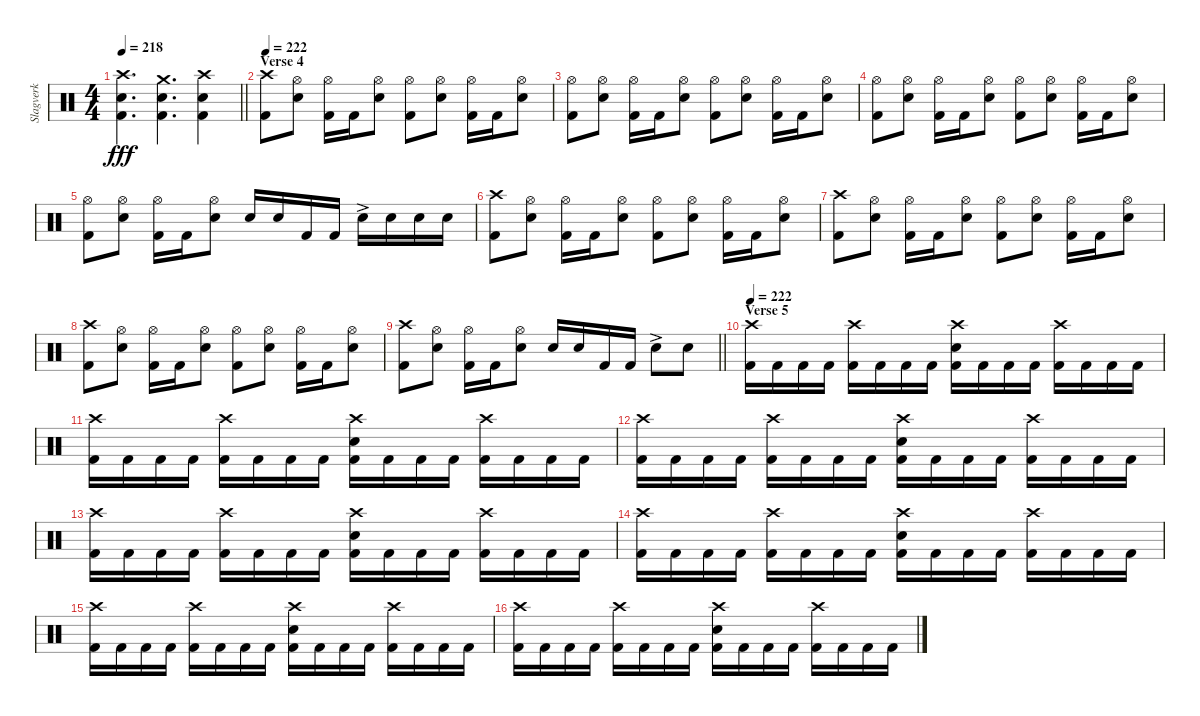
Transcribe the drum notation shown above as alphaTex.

\track ("Slagverk" "Slagverk") {instrument percussion}
\staff {score}
\articulation defaults
\ts (4 4)
\tempo 218
\clef neutral
\barLineRight lightlight
\ks c
("Crash high (hit)" "Electric Snare (hit)" "Kick (hit) 2").4{d dy fff} ("Crash medium (hit)" "Electric Snare (hit)" "Kick (hit) 2").4{d} ("Crash high (hit)" "Electric Snare (hit)" "Kick (hit) 2").4 |
\section ("" "Verse 4")
\tempo 222
("Crash high (hit)" "Kick (hit) 2").8 ("Hi-Hat (open)" "Electric Snare (hit)").8 ("Hi-Hat (open)" "Kick (hit) 2").16 "Kick (hit) 2".16 ("Hi-Hat (open)" "Electric Snare (hit)").8 ("Hi-Hat (open)" "Kick (hit) 2").8 ("Hi-Hat (open)" "Electric Snare (hit)").8 ("Hi-Hat (open)" "Kick (hit) 2").16 "Kick (hit) 2".16 ("Hi-Hat (open)" "Electric Snare (hit)").8 |
("Hi-Hat (open)" "Kick (hit) 2").8 ("Hi-Hat (open)" "Electric Snare (hit)").8 ("Hi-Hat (open)" "Kick (hit) 2").16 "Kick (hit) 2".16 ("Hi-Hat (open)" "Electric Snare (hit)").8 ("Hi-Hat (open)" "Kick (hit) 2").8 ("Hi-Hat (open)" "Electric Snare (hit)").8 ("Hi-Hat (open)" "Kick (hit) 2").16 "Kick (hit) 2".16 ("Hi-Hat (open)" "Electric Snare (hit)").8 |
("Hi-Hat (open)" "Kick (hit) 2").8 ("Hi-Hat (open)" "Electric Snare (hit)").8 ("Hi-Hat (open)" "Kick (hit) 2").16 "Kick (hit) 2".16 ("Hi-Hat (open)" "Electric Snare (hit)").8 ("Hi-Hat (open)" "Kick (hit) 2").8 ("Hi-Hat (open)" "Electric Snare (hit)").8 ("Hi-Hat (open)" "Kick (hit) 2").16 "Kick (hit) 2".16 ("Hi-Hat (open)" "Electric Snare (hit)").8 |
("Hi-Hat (open)" "Kick (hit) 2").8 ("Hi-Hat (open)" "Electric Snare (hit)").8 ("Hi-Hat (open)" "Kick (hit) 2").16 "Kick (hit) 2".16 ("Hi-Hat (open)" "Electric Snare (hit)").8 "Electric Snare (hit)".16 "Electric Snare (hit)".16 "Kick (hit) 2".16 "Kick (hit) 2".16 "Electric Snare (hit)"{ac}.16 "Electric Snare (hit)".16 "Electric Snare (hit)".16 "Electric Snare (hit)".16 |
("Crash high (hit)" "Kick (hit) 2").8 ("Hi-Hat (open)" "Electric Snare (hit)").8 ("Hi-Hat (open)" "Kick (hit) 2").16 "Kick (hit) 2".16 ("Hi-Hat (open)" "Electric Snare (hit)").8 ("Hi-Hat (open)" "Kick (hit) 2").8 ("Hi-Hat (open)" "Electric Snare (hit)").8 ("Hi-Hat (open)" "Kick (hit) 2").16 "Kick (hit) 2".16 ("Hi-Hat (open)" "Electric Snare (hit)").8 |
("Crash high (hit)" "Kick (hit) 2").8 ("Hi-Hat (open)" "Electric Snare (hit)").8 ("Hi-Hat (open)" "Kick (hit) 2").16 "Kick (hit) 2".16 ("Hi-Hat (open)" "Electric Snare (hit)").8 ("Hi-Hat (open)" "Kick (hit) 2").8 ("Hi-Hat (open)" "Electric Snare (hit)").8 ("Hi-Hat (open)" "Kick (hit) 2").16 "Kick (hit) 2".16 ("Hi-Hat (open)" "Electric Snare (hit)").8 |
("Crash high (hit)" "Kick (hit) 2").8 ("Hi-Hat (open)" "Electric Snare (hit)").8 ("Hi-Hat (open)" "Kick (hit) 2").16 "Kick (hit) 2".16 ("Hi-Hat (open)" "Electric Snare (hit)").8 ("Hi-Hat (open)" "Kick (hit) 2").8 ("Hi-Hat (open)" "Electric Snare (hit)").8 ("Hi-Hat (open)" "Kick (hit) 2").16 "Kick (hit) 2".16 ("Hi-Hat (open)" "Electric Snare (hit)").8 |
\barLineRight lightlight
("Crash high (hit)" "Kick (hit) 2").8 ("Hi-Hat (open)" "Electric Snare (hit)").8 ("Hi-Hat (open)" "Kick (hit) 2").16 "Kick (hit) 2".16 ("Hi-Hat (open)" "Electric Snare (hit)").8 "Electric Snare (hit)".16 "Electric Snare (hit)".16 "Kick (hit) 2".16 "Kick (hit) 2".16 "Electric Snare (hit)"{ac}.8 "Electric Snare (hit)".8 |
\section ("" "Verse 5")
\tempo 222
("Crash high (hit)" "Kick (hit) 2").16 "Kick (hit) 2".16 "Kick (hit) 2".16 "Kick (hit) 2".16 ("Crash high (hit)" "Kick (hit) 2").16 "Kick (hit) 2".16 "Kick (hit) 2".16 "Kick (hit) 2".16 ("Crash high (hit)" "Electric Snare (hit)" "Kick (hit) 2").16 "Kick (hit) 2".16 "Kick (hit) 2".16 "Kick (hit) 2".16 ("Crash high (hit)" "Kick (hit) 2").16 "Kick (hit) 2".16 "Kick (hit) 2".16 "Kick (hit) 2".16 |
("Crash high (hit)" "Kick (hit) 2").16 "Kick (hit) 2".16 "Kick (hit) 2".16 "Kick (hit) 2".16 ("Crash high (hit)" "Kick (hit) 2").16 "Kick (hit) 2".16 "Kick (hit) 2".16 "Kick (hit) 2".16 ("Crash high (hit)" "Electric Snare (hit)" "Kick (hit) 2").16 "Kick (hit) 2".16 "Kick (hit) 2".16 "Kick (hit) 2".16 ("Crash high (hit)" "Kick (hit) 2").16 "Kick (hit) 2".16 "Kick (hit) 2".16 "Kick (hit) 2".16 |
("Crash high (hit)" "Kick (hit) 2").16 "Kick (hit) 2".16 "Kick (hit) 2".16 "Kick (hit) 2".16 ("Crash high (hit)" "Kick (hit) 2").16 "Kick (hit) 2".16 "Kick (hit) 2".16 "Kick (hit) 2".16 ("Crash high (hit)" "Electric Snare (hit)" "Kick (hit) 2").16 "Kick (hit) 2".16 "Kick (hit) 2".16 "Kick (hit) 2".16 ("Crash high (hit)" "Kick (hit) 2").16 "Kick (hit) 2".16 "Kick (hit) 2".16 "Kick (hit) 2".16 |
("Crash high (hit)" "Kick (hit) 2").16 "Kick (hit) 2".16 "Kick (hit) 2".16 "Kick (hit) 2".16 ("Crash high (hit)" "Kick (hit) 2").16 "Kick (hit) 2".16 "Kick (hit) 2".16 "Kick (hit) 2".16 ("Crash high (hit)" "Electric Snare (hit)" "Kick (hit) 2").16 "Kick (hit) 2".16 "Kick (hit) 2".16 "Kick (hit) 2".16 ("Crash high (hit)" "Kick (hit) 2").16 "Kick (hit) 2".16 "Kick (hit) 2".16 "Kick (hit) 2".16 |
("Crash high (hit)" "Kick (hit) 2").16 "Kick (hit) 2".16 "Kick (hit) 2".16 "Kick (hit) 2".16 ("Crash high (hit)" "Kick (hit) 2").16 "Kick (hit) 2".16 "Kick (hit) 2".16 "Kick (hit) 2".16 ("Crash high (hit)" "Electric Snare (hit)" "Kick (hit) 2").16 "Kick (hit) 2".16 "Kick (hit) 2".16 "Kick (hit) 2".16 ("Crash high (hit)" "Kick (hit) 2").16 "Kick (hit) 2".16 "Kick (hit) 2".16 "Kick (hit) 2".16 |
("Crash high (hit)" "Kick (hit) 2").16 "Kick (hit) 2".16 "Kick (hit) 2".16 "Kick (hit) 2".16 ("Crash high (hit)" "Kick (hit) 2").16 "Kick (hit) 2".16 "Kick (hit) 2".16 "Kick (hit) 2".16 ("Crash high (hit)" "Electric Snare (hit)" "Kick (hit) 2").16 "Kick (hit) 2".16 "Kick (hit) 2".16 "Kick (hit) 2".16 ("Crash high (hit)" "Kick (hit) 2").16 "Kick (hit) 2".16 "Kick (hit) 2".16 "Kick (hit) 2".16 |
("Crash high (hit)" "Kick (hit) 2").16 "Kick (hit) 2".16 "Kick (hit) 2".16 "Kick (hit) 2".16 ("Crash high (hit)" "Kick (hit) 2").16 "Kick (hit) 2".16 "Kick (hit) 2".16 "Kick (hit) 2".16 ("Crash high (hit)" "Electric Snare (hit)" "Kick (hit) 2").16 "Kick (hit) 2".16 "Kick (hit) 2".16 "Kick (hit) 2".16 ("Crash high (hit)" "Kick (hit) 2").16 "Kick (hit) 2".16 "Kick (hit) 2".16 "Kick (hit) 2".16
